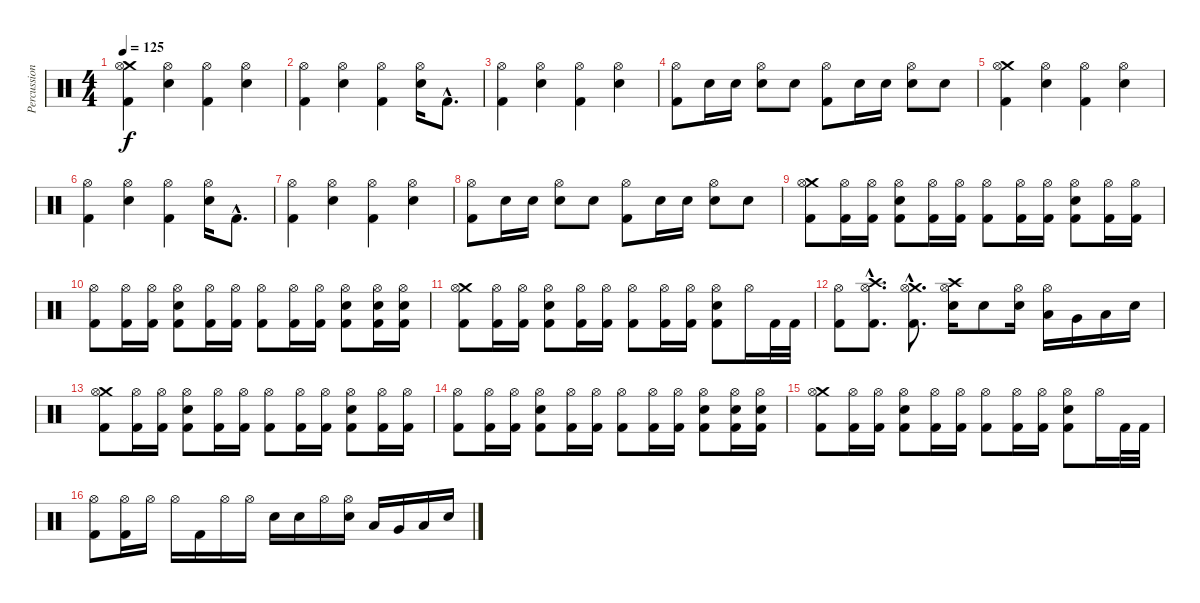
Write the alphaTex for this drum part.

\track ("Percussion" "Percussion") {instrument percussion}
\staff {score}
\articulation defaults
\ts (4 4)
\tempo 125
\clef neutral
\ks c
("Crash medium (hit)" "Hi-Hat (open)" "Kick (hit) 2").4{dy f} ("Hi-Hat (open)" "Electric Snare (hit)").4 ("Hi-Hat (open)" "Kick (hit) 2").4 ("Hi-Hat (open)" "Electric Snare (hit)").4 |
("Hi-Hat (open)" "Kick (hit) 2").4 ("Hi-Hat (open)" "Electric Snare (hit)").4 ("Hi-Hat (open)" "Kick (hit) 2").4 ("Hi-Hat (open)" "Electric Snare (hit)").16 "Kick (hit) 2"{hac}.8{d} |
("Hi-Hat (open)" "Kick (hit) 2").4 ("Hi-Hat (open)" "Electric Snare (hit)").4 ("Hi-Hat (open)" "Kick (hit) 2").4 ("Hi-Hat (open)" "Electric Snare (hit)").4 |
("Hi-Hat (open)" "Kick (hit) 2").8 "Electric Snare (hit)".16 "Electric Snare (hit)".16 ("Hi-Hat (open)" "Electric Snare (hit)").8 "Electric Snare (hit)".8 ("Hi-Hat (open)" "Kick (hit) 2").8 "Electric Snare (hit)".16 "Electric Snare (hit)".16 ("Hi-Hat (open)" "Electric Snare (hit)").8 "Electric Snare (hit)".8 |
("Crash medium (hit)" "Hi-Hat (open)" "Kick (hit) 2").4 ("Hi-Hat (open)" "Electric Snare (hit)").4 ("Hi-Hat (open)" "Kick (hit) 2").4 ("Hi-Hat (open)" "Electric Snare (hit)").4 |
("Hi-Hat (open)" "Kick (hit) 2").4 ("Hi-Hat (open)" "Electric Snare (hit)").4 ("Hi-Hat (open)" "Kick (hit) 2").4 ("Hi-Hat (open)" "Electric Snare (hit)").16 "Kick (hit) 2"{hac}.8{d} |
("Hi-Hat (open)" "Kick (hit) 2").4 ("Hi-Hat (open)" "Electric Snare (hit)").4 ("Hi-Hat (open)" "Kick (hit) 2").4 ("Hi-Hat (open)" "Electric Snare (hit)").4 |
("Hi-Hat (open)" "Kick (hit) 2").8 "Electric Snare (hit)".16 "Electric Snare (hit)".16 ("Hi-Hat (open)" "Electric Snare (hit)").8 "Electric Snare (hit)".8 ("Hi-Hat (open)" "Kick (hit) 2").8 "Electric Snare (hit)".16 "Electric Snare (hit)".16 ("Hi-Hat (open)" "Electric Snare (hit)").8 "Electric Snare (hit)".8 |
("Crash medium (hit)" "Hi-Hat (open)" "Kick (hit) 2").8 ("Hi-Hat (open)" "Kick (hit) 2").16 ("Hi-Hat (open)" "Kick (hit) 2").16 ("Hi-Hat (open)" "Electric Snare (hit)" "Kick (hit) 2").8 ("Hi-Hat (open)" "Kick (hit) 2").16 ("Hi-Hat (open)" "Kick (hit) 2").16 ("Hi-Hat (open)" "Kick (hit) 2").8 ("Hi-Hat (open)" "Kick (hit) 2").16 ("Hi-Hat (open)" "Kick (hit) 2").16 ("Hi-Hat (open)" "Electric Snare (hit)" "Kick (hit) 2").8 ("Hi-Hat (open)" "Kick (hit) 2").16 ("Hi-Hat (open)" "Kick (hit) 2").16 |
("Hi-Hat (open)" "Kick (hit) 2").8 ("Hi-Hat (open)" "Kick (hit) 2").16 ("Hi-Hat (open)" "Kick (hit) 2").16 ("Hi-Hat (open)" "Electric Snare (hit)" "Kick (hit) 2").8 ("Hi-Hat (open)" "Kick (hit) 2").16 ("Hi-Hat (open)" "Kick (hit) 2").16 ("Hi-Hat (open)" "Kick (hit) 2").8 ("Hi-Hat (open)" "Kick (hit) 2").16 ("Hi-Hat (open)" "Kick (hit) 2").16 ("Hi-Hat (open)" "Electric Snare (hit)" "Kick (hit) 2").8 ("Hi-Hat (open)" "Electric Snare (hit)" "Kick (hit) 2").16 ("Hi-Hat (open)" "Electric Snare (hit)" "Kick (hit) 2").16 |
("Crash medium (hit)" "Hi-Hat (open)" "Kick (hit) 2").8 ("Hi-Hat (open)" "Kick (hit) 2").16 ("Hi-Hat (open)" "Kick (hit) 2").16 ("Hi-Hat (open)" "Electric Snare (hit)" "Kick (hit) 2").8 ("Hi-Hat (open)" "Kick (hit) 2").16 ("Hi-Hat (open)" "Kick (hit) 2").16 ("Hi-Hat (open)" "Kick (hit) 2").8 ("Hi-Hat (open)" "Kick (hit) 2").16 ("Hi-Hat (open)" "Kick (hit) 2").16 ("Hi-Hat (open)" "Electric Snare (hit)" "Kick (hit) 2").8 "Hi-Hat (open)".16 "Kick (hit) 2".32 "Kick (hit) 2".32 |
("Hi-Hat (open)" "Kick (hit) 2").8 ("Crash high (hit)"{hac} "Hi-Hat (open)"{hac} "Kick (hit) 2"{hac}).8{d} ("Crash medium (hit)"{hac} "Hi-Hat (open)"{hac} "Kick (hit) 2"{hac}).8{d} ("Crash high (hit)" "Hi-Hat (open)" "Electric Snare (hit)").16 "Electric Snare (hit)".8 ("Hi-Hat (open)" "Electric Snare (hit)").16 ("Hi-Hat (open)" "Low Tom (hit)").16 "Very Low Tom (hit)".16 "Low Floor Tom (hit)".16 "Electric Snare (hit)".16 |
("Crash medium (hit)" "Hi-Hat (open)" "Kick (hit) 2").8 ("Hi-Hat (open)" "Kick (hit) 2").16 ("Hi-Hat (open)" "Kick (hit) 2").16 ("Hi-Hat (open)" "Electric Snare (hit)" "Kick (hit) 2").8 ("Hi-Hat (open)" "Kick (hit) 2").16 ("Hi-Hat (open)" "Kick (hit) 2").16 ("Hi-Hat (open)" "Kick (hit) 2").8 ("Hi-Hat (open)" "Kick (hit) 2").16 ("Hi-Hat (open)" "Kick (hit) 2").16 ("Hi-Hat (open)" "Electric Snare (hit)" "Kick (hit) 2").8 ("Hi-Hat (open)" "Kick (hit) 2").16 ("Hi-Hat (open)" "Kick (hit) 2").16 |
("Hi-Hat (open)" "Kick (hit) 2").8 ("Hi-Hat (open)" "Kick (hit) 2").16 ("Hi-Hat (open)" "Kick (hit) 2").16 ("Hi-Hat (open)" "Electric Snare (hit)" "Kick (hit) 2").8 ("Hi-Hat (open)" "Kick (hit) 2").16 ("Hi-Hat (open)" "Kick (hit) 2").16 ("Hi-Hat (open)" "Kick (hit) 2").8 ("Hi-Hat (open)" "Kick (hit) 2").16 ("Hi-Hat (open)" "Kick (hit) 2").16 ("Hi-Hat (open)" "Electric Snare (hit)" "Kick (hit) 2").8 ("Hi-Hat (open)" "Electric Snare (hit)" "Kick (hit) 2").16 ("Hi-Hat (open)" "Electric Snare (hit)" "Kick (hit) 2").16 |
("Crash medium (hit)" "Hi-Hat (open)" "Kick (hit) 2").8 ("Hi-Hat (open)" "Kick (hit) 2").16 ("Hi-Hat (open)" "Kick (hit) 2").16 ("Hi-Hat (open)" "Electric Snare (hit)" "Kick (hit) 2").8 ("Hi-Hat (open)" "Kick (hit) 2").16 ("Hi-Hat (open)" "Kick (hit) 2").16 ("Hi-Hat (open)" "Kick (hit) 2").8 ("Hi-Hat (open)" "Kick (hit) 2").16 ("Hi-Hat (open)" "Kick (hit) 2").16 ("Hi-Hat (open)" "Electric Snare (hit)" "Kick (hit) 2").8 "Hi-Hat (open)".16 "Kick (hit) 2".32 "Kick (hit) 2".32 |
("Hi-Hat (open)" "Kick (hit) 2").8 ("Hi-Hat (open)" "Kick (hit) 2").16 "Hi-Hat (open)".16 "Hi-Hat (open)".16 "Kick (hit) 2".16 "Hi-Hat (open)".16 "Hi-Hat (open)".16 "Electric Snare (hit)".16 "Electric Snare (hit)".16 "Hi-Hat (open)".16 ("Hi-Hat (open)" "Electric Snare (hit)").16 "Low Tom (hit)".16 "Very Low Tom (hit)".16 "Low Floor Tom (hit)".16 "Electric Snare (hit)".16
